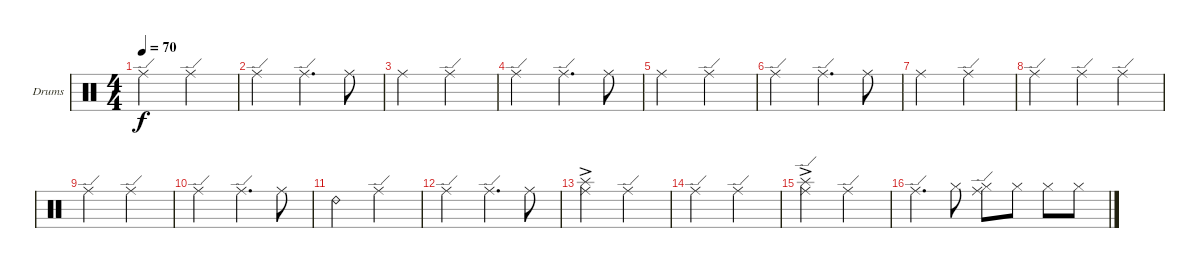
\bracketExtendMode groupsimilarinstruments
\firstSystemTrackNameOrientation horizontal
\otherSystemsTrackNameOrientation horizontal
\track ("Drumkit" "Drums") {instrument percussion}
\staff {score}
\articulation defaults
\ts (4 4)
\tempo 70
\clef neutral
\ks c "Ride (edge)".2{dy f} "Ride (edge)".2
|
"Ride (edge)".2 "Ride (edge)".4{d} "Ride (middle)".8 |
"Ride (middle)".2 "Ride (edge)".2 |
"Ride (edge)".2 "Ride (edge)".4{d} "Ride (middle)".8 |
"Ride (middle)".2 "Ride (edge)".2 |
"Ride (edge)".2 "Ride (edge)".4{d} "Ride (middle)".8 |
"Ride (middle)".2 "Ride (edge)".2 |
"Ride (edge)".2 "Ride (edge)".4 "Ride (edge)".4 |
"Ride (edge)".2 "Ride (edge)".2 |
"Ride (edge)".2 "Ride (edge)".4{d} "Ride (middle)".8 |
"Ride (bell) 2".2 "Ride (edge)".2 |
"Ride (edge)".2 "Ride (edge)".4{d} "Ride (middle)".8 |
("Splash (hit)"{ac} "Ride (middle)").2 "Ride (edge)".2 |
"Ride (edge)".2 "Ride (edge)".2 |
("Splash (hit)"{ac} "Ride (edge)").2 "Ride (edge)".2 |
"Ride (edge)".4{d} "Hi-Hat (closed)".8 ("Hi-Hat (closed)" "Ride (edge)").8 "Hi-Hat (closed)".8 "Hi-Hat (closed)".8 "Hi-Hat (closed)".8
